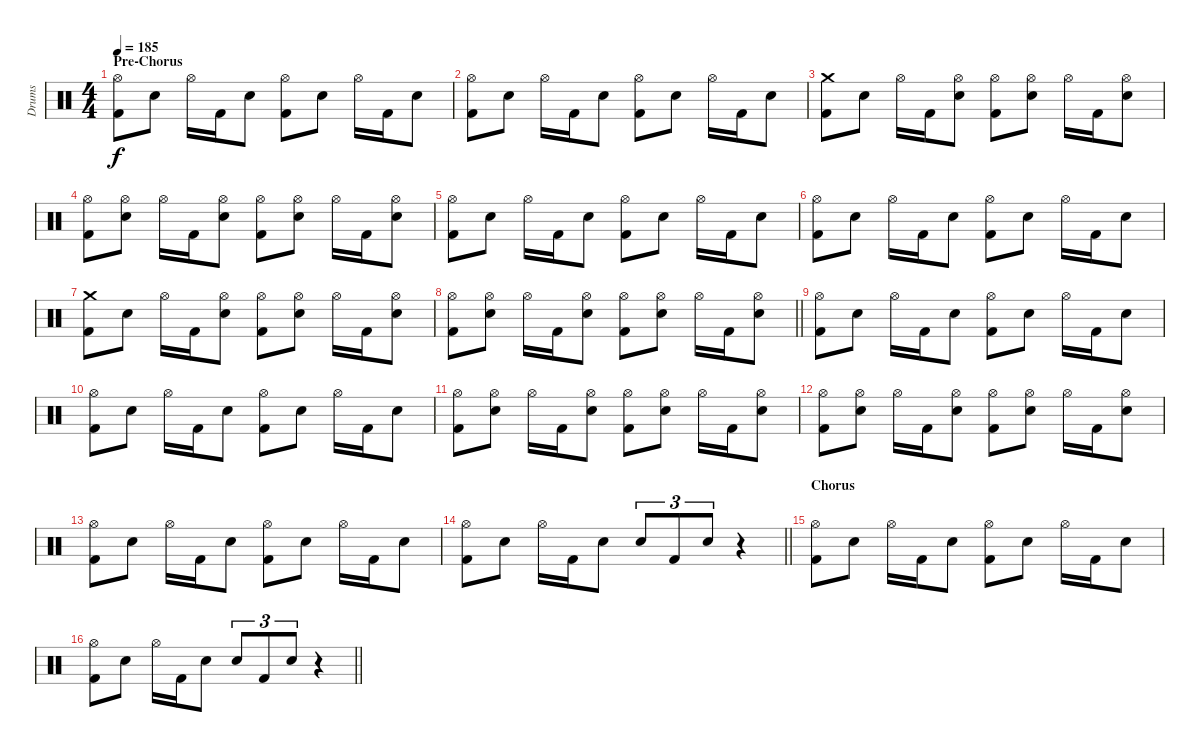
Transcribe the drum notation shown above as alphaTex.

\track ("Drums" "Drums") {instrument percussion}
\staff {score}
\articulation defaults
\ts (4 4)
\section ("" "Pre-Chorus")
\tempo 185
\clef neutral
\ks c
("Hi-Hat (open)" "Kick (hit) 2").8{dy f} "Electric Snare (hit)".8 "Hi-Hat (open)".16 "Kick (hit) 2".16 "Electric Snare (hit)".8 ("Hi-Hat (open)" "Kick (hit) 2").8 "Electric Snare (hit)".8 "Hi-Hat (open)".16 "Kick (hit) 2".16 "Electric Snare (hit)".8 |
("Hi-Hat (open)" "Kick (hit) 2").8 "Electric Snare (hit)".8 "Hi-Hat (open)".16 "Kick (hit) 2".16 "Electric Snare (hit)".8 ("Hi-Hat (open)" "Kick (hit) 2").8 "Electric Snare (hit)".8 "Hi-Hat (open)".16 "Kick (hit) 2".16 "Electric Snare (hit)".8 |
("Crash medium (hit)" "Kick (hit) 2").8 "Electric Snare (hit)".8 "Hi-Hat (open)".16 "Kick (hit) 2".16 ("Hi-Hat (open)" "Electric Snare (hit)").8 ("Hi-Hat (open)" "Kick (hit) 2").8 ("Hi-Hat (open)" "Electric Snare (hit)").8 "Hi-Hat (open)".16 "Kick (hit) 2".16 ("Hi-Hat (open)" "Electric Snare (hit)").8 |
("Hi-Hat (open)" "Kick (hit) 2").8 ("Hi-Hat (open)" "Electric Snare (hit)").8 "Hi-Hat (open)".16 "Kick (hit) 2".16 ("Hi-Hat (open)" "Electric Snare (hit)").8 ("Hi-Hat (open)" "Kick (hit) 2").8 ("Hi-Hat (open)" "Electric Snare (hit)").8 "Hi-Hat (open)".16 "Kick (hit) 2".16 ("Hi-Hat (open)" "Electric Snare (hit)").8 |
("Hi-Hat (open)" "Kick (hit) 2").8 "Electric Snare (hit)".8 "Hi-Hat (open)".16 "Kick (hit) 2".16 "Electric Snare (hit)".8 ("Hi-Hat (open)" "Kick (hit) 2").8 "Electric Snare (hit)".8 "Hi-Hat (open)".16 "Kick (hit) 2".16 "Electric Snare (hit)".8 |
("Hi-Hat (open)" "Kick (hit) 2").8 "Electric Snare (hit)".8 "Hi-Hat (open)".16 "Kick (hit) 2".16 "Electric Snare (hit)".8 ("Hi-Hat (open)" "Kick (hit) 2").8 "Electric Snare (hit)".8 "Hi-Hat (open)".16 "Kick (hit) 2".16 "Electric Snare (hit)".8 |
("Crash medium (hit)" "Kick (hit) 2").8 "Electric Snare (hit)".8 "Hi-Hat (open)".16 "Kick (hit) 2".16 ("Hi-Hat (open)" "Electric Snare (hit)").8 ("Hi-Hat (open)" "Kick (hit) 2").8 ("Hi-Hat (open)" "Electric Snare (hit)").8 "Hi-Hat (open)".16 "Kick (hit) 2".16 ("Hi-Hat (open)" "Electric Snare (hit)").8 |
\barLineRight lightlight
("Hi-Hat (open)" "Kick (hit) 2").8 ("Hi-Hat (open)" "Electric Snare (hit)").8 "Hi-Hat (open)".16 "Kick (hit) 2".16 ("Hi-Hat (open)" "Electric Snare (hit)").8 ("Hi-Hat (open)" "Kick (hit) 2").8 ("Hi-Hat (open)" "Electric Snare (hit)").8 "Hi-Hat (open)".16 "Kick (hit) 2".16 ("Hi-Hat (open)" "Electric Snare (hit)").8 |
("Hi-Hat (open)" "Kick (hit) 2").8 "Electric Snare (hit)".8 "Hi-Hat (open)".16 "Kick (hit) 2".16 "Electric Snare (hit)".8 ("Hi-Hat (open)" "Kick (hit) 2").8 "Electric Snare (hit)".8 "Hi-Hat (open)".16 "Kick (hit) 2".16 "Electric Snare (hit)".8 |
("Hi-Hat (open)" "Kick (hit) 2").8 "Electric Snare (hit)".8 "Hi-Hat (open)".16 "Kick (hit) 2".16 "Electric Snare (hit)".8 ("Hi-Hat (open)" "Kick (hit) 2").8 "Electric Snare (hit)".8 "Hi-Hat (open)".16 "Kick (hit) 2".16 "Electric Snare (hit)".8 |
("Hi-Hat (open)" "Kick (hit) 2").8 ("Hi-Hat (open)" "Electric Snare (hit)").8 "Hi-Hat (open)".16 "Kick (hit) 2".16 ("Hi-Hat (open)" "Electric Snare (hit)").8 ("Hi-Hat (open)" "Kick (hit) 2").8 ("Hi-Hat (open)" "Electric Snare (hit)").8 "Hi-Hat (open)".16 "Kick (hit) 2".16 ("Hi-Hat (open)" "Electric Snare (hit)").8 |
("Hi-Hat (open)" "Kick (hit) 2").8 ("Hi-Hat (open)" "Electric Snare (hit)").8 "Hi-Hat (open)".16 "Kick (hit) 2".16 ("Hi-Hat (open)" "Electric Snare (hit)").8 ("Hi-Hat (open)" "Kick (hit) 2").8 ("Hi-Hat (open)" "Electric Snare (hit)").8 "Hi-Hat (open)".16 "Kick (hit) 2".16 ("Hi-Hat (open)" "Electric Snare (hit)").8 |
("Hi-Hat (open)" "Kick (hit) 2").8 "Electric Snare (hit)".8 "Hi-Hat (open)".16 "Kick (hit) 2".16 "Electric Snare (hit)".8 ("Hi-Hat (open)" "Kick (hit) 2").8 "Electric Snare (hit)".8 "Hi-Hat (open)".16 "Kick (hit) 2".16 "Electric Snare (hit)".8 |
\barLineRight lightlight
("Hi-Hat (open)" "Kick (hit) 2").8 "Electric Snare (hit)".8 "Hi-Hat (open)".16 "Kick (hit) 2".16 "Electric Snare (hit)".8 "Electric Snare (hit)".8{tu (3 2)} "Kick (hit) 2".8{tu (3 2)} "Electric Snare (hit)".8{tu (3 2)} r.4 |
\section ("" "Chorus")
("Hi-Hat (open)" "Kick (hit) 2").8 "Electric Snare (hit)".8 "Hi-Hat (open)".16 "Kick (hit) 2".16 "Electric Snare (hit)".8 ("Hi-Hat (open)" "Kick (hit) 2").8 "Electric Snare (hit)".8 "Hi-Hat (open)".16 "Kick (hit) 2".16 "Electric Snare (hit)".8 |
\barLineRight lightlight
("Hi-Hat (open)" "Kick (hit) 2").8 "Electric Snare (hit)".8 "Hi-Hat (open)".16 "Kick (hit) 2".16 "Electric Snare (hit)".8 "Electric Snare (hit)".8{tu (3 2)} "Kick (hit) 2".8{tu (3 2)} "Electric Snare (hit)".8{tu (3 2)} r.4
